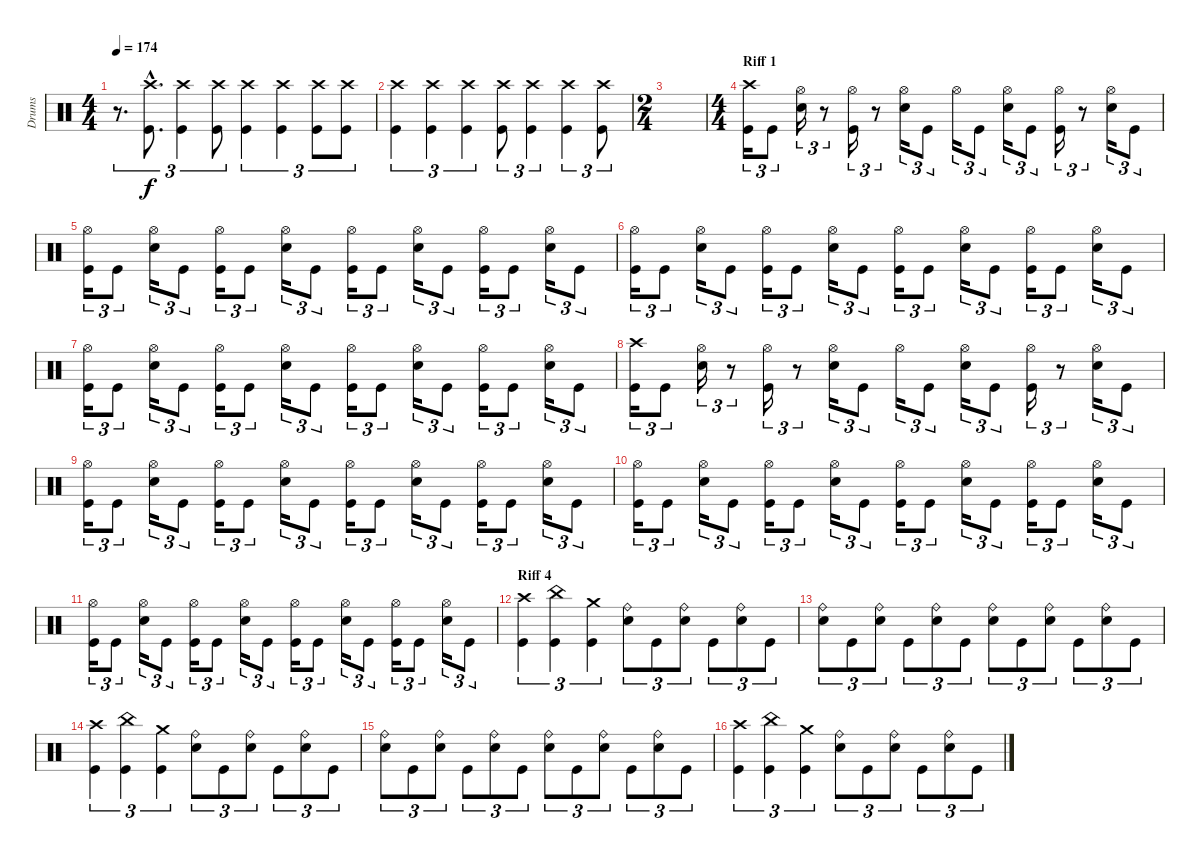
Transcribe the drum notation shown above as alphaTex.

\track ("Drums" "Drums") {instrument percussion}
\staff {score}
\articulation defaults
\ts (4 4)
\tempo 174
\clef neutral
\ks c
r.8{d tu (3 2) dy f} ("Crash high (hit)"{hac} "Kick (hit)"{hac}).8{d tu (3 2)} ("Crash high (hit)" "Kick (hit)").4{tu (3 2)} ("Crash high (hit)" "Kick (hit)").8{tu (3 2)} ("Crash high (hit)" "Kick (hit)").4{tu (3 2)} ("Crash high (hit)" "Kick (hit)").4{tu (3 2)} ("Crash high (hit)" "Kick (hit)").8{tu (3 2)} ("Crash high (hit)" "Kick (hit)").8{tu (3 2)} |
("Crash high (hit)" "Kick (hit)").4{tu (3 2)} ("Crash high (hit)" "Kick (hit)").4{tu (3 2)} ("Crash high (hit)" "Kick (hit)").4{tu (3 2)} ("Crash high (hit)" "Kick (hit)").8{tu (3 2)} ("Crash high (hit)" "Kick (hit)").4{tu (3 2)} ("Crash high (hit)" "Kick (hit)").4{tu (3 2)} ("Crash high (hit)" "Kick (hit)").8{tu (3 2)} |
\ts (2 4)
|
\ts (4 4)
\section ("" "Riff 1")
("Crash high (hit)" "Kick (hit)").16{tu (3 2)} "Kick (hit)".8{tu (3 2)} ("Hi-Hat (open)" "Electric Snare (hit)").16{tu (3 2)} r.8{tu (3 2)} ("Hi-Hat (open)" "Kick (hit)").16{tu (3 2)} r.8{tu (3 2)} ("Hi-Hat (open)" "Electric Snare (hit)").16{tu (3 2)} "Kick (hit)".8{tu (3 2)} "Hi-Hat (open)".16{tu (3 2)} "Kick (hit)".8{tu (3 2)} ("Hi-Hat (open)" "Electric Snare (hit)").16{tu (3 2)} "Kick (hit)".8{tu (3 2)} ("Hi-Hat (open)" "Kick (hit)").16{tu (3 2)} r.8{tu (3 2)} ("Hi-Hat (open)" "Electric Snare (hit)").16{tu (3 2)} "Kick (hit)".8{tu (3 2)} |
("Hi-Hat (open)" "Kick (hit)").16{tu (3 2)} "Kick (hit)".8{tu (3 2)} ("Hi-Hat (open)" "Electric Snare (hit)").16{tu (3 2)} "Kick (hit)".8{tu (3 2)} ("Hi-Hat (open)" "Kick (hit)").16{tu (3 2)} "Kick (hit)".8{tu (3 2)} ("Hi-Hat (open)" "Electric Snare (hit)").16{tu (3 2)} "Kick (hit)".8{tu (3 2)} ("Hi-Hat (open)" "Kick (hit)").16{tu (3 2)} "Kick (hit)".8{tu (3 2)} ("Hi-Hat (open)" "Electric Snare (hit)").16{tu (3 2)} "Kick (hit)".8{tu (3 2)} ("Hi-Hat (open)" "Kick (hit)").16{tu (3 2)} "Kick (hit)".8{tu (3 2)} ("Hi-Hat (open)" "Electric Snare (hit)").16{tu (3 2)} "Kick (hit)".8{tu (3 2)} |
("Hi-Hat (open)" "Kick (hit)").16{tu (3 2)} "Kick (hit)".8{tu (3 2)} ("Hi-Hat (open)" "Electric Snare (hit)").16{tu (3 2)} "Kick (hit)".8{tu (3 2)} ("Hi-Hat (open)" "Kick (hit)").16{tu (3 2)} "Kick (hit)".8{tu (3 2)} ("Hi-Hat (open)" "Electric Snare (hit)").16{tu (3 2)} "Kick (hit)".8{tu (3 2)} ("Hi-Hat (open)" "Kick (hit)").16{tu (3 2)} "Kick (hit)".8{tu (3 2)} ("Hi-Hat (open)" "Electric Snare (hit)").16{tu (3 2)} "Kick (hit)".8{tu (3 2)} ("Hi-Hat (open)" "Kick (hit)").16{tu (3 2)} "Kick (hit)".8{tu (3 2)} ("Hi-Hat (open)" "Electric Snare (hit)").16{tu (3 2)} "Kick (hit)".8{tu (3 2)} |
("Hi-Hat (open)" "Kick (hit)").16{tu (3 2)} "Kick (hit)".8{tu (3 2)} ("Hi-Hat (open)" "Electric Snare (hit)").16{tu (3 2)} "Kick (hit)".8{tu (3 2)} ("Hi-Hat (open)" "Kick (hit)").16{tu (3 2)} "Kick (hit)".8{tu (3 2)} ("Hi-Hat (open)" "Electric Snare (hit)").16{tu (3 2)} "Kick (hit)".8{tu (3 2)} ("Hi-Hat (open)" "Kick (hit)").16{tu (3 2)} "Kick (hit)".8{tu (3 2)} ("Hi-Hat (open)" "Electric Snare (hit)").16{tu (3 2)} "Kick (hit)".8{tu (3 2)} ("Hi-Hat (open)" "Kick (hit)").16{tu (3 2)} "Kick (hit)".8{tu (3 2)} ("Hi-Hat (open)" "Electric Snare (hit)").16{tu (3 2)} "Kick (hit)".8{tu (3 2)} |
("Crash high (hit)" "Kick (hit)").16{tu (3 2)} "Kick (hit)".8{tu (3 2)} ("Hi-Hat (open)" "Electric Snare (hit)").16{tu (3 2)} r.8{tu (3 2)} ("Hi-Hat (open)" "Kick (hit)").16{tu (3 2)} r.8{tu (3 2)} ("Hi-Hat (open)" "Electric Snare (hit)").16{tu (3 2)} "Kick (hit)".8{tu (3 2)} "Hi-Hat (open)".16{tu (3 2)} "Kick (hit)".8{tu (3 2)} ("Hi-Hat (open)" "Electric Snare (hit)").16{tu (3 2)} "Kick (hit)".8{tu (3 2)} ("Hi-Hat (open)" "Kick (hit)").16{tu (3 2)} r.8{tu (3 2)} ("Hi-Hat (open)" "Electric Snare (hit)").16{tu (3 2)} "Kick (hit)".8{tu (3 2)} |
("Hi-Hat (open)" "Kick (hit)").16{tu (3 2)} "Kick (hit)".8{tu (3 2)} ("Hi-Hat (open)" "Electric Snare (hit)").16{tu (3 2)} "Kick (hit)".8{tu (3 2)} ("Hi-Hat (open)" "Kick (hit)").16{tu (3 2)} "Kick (hit)".8{tu (3 2)} ("Hi-Hat (open)" "Electric Snare (hit)").16{tu (3 2)} "Kick (hit)".8{tu (3 2)} ("Hi-Hat (open)" "Kick (hit)").16{tu (3 2)} "Kick (hit)".8{tu (3 2)} ("Hi-Hat (open)" "Electric Snare (hit)").16{tu (3 2)} "Kick (hit)".8{tu (3 2)} ("Hi-Hat (open)" "Kick (hit)").16{tu (3 2)} "Kick (hit)".8{tu (3 2)} ("Hi-Hat (open)" "Electric Snare (hit)").16{tu (3 2)} "Kick (hit)".8{tu (3 2)} |
("Hi-Hat (open)" "Kick (hit)").16{tu (3 2)} "Kick (hit)".8{tu (3 2)} ("Hi-Hat (open)" "Electric Snare (hit)").16{tu (3 2)} "Kick (hit)".8{tu (3 2)} ("Hi-Hat (open)" "Kick (hit)").16{tu (3 2)} "Kick (hit)".8{tu (3 2)} ("Hi-Hat (open)" "Electric Snare (hit)").16{tu (3 2)} "Kick (hit)".8{tu (3 2)} ("Hi-Hat (open)" "Kick (hit)").16{tu (3 2)} "Kick (hit)".8{tu (3 2)} ("Hi-Hat (open)" "Electric Snare (hit)").16{tu (3 2)} "Kick (hit)".8{tu (3 2)} ("Hi-Hat (open)" "Kick (hit)").16{tu (3 2)} "Kick (hit)".8{tu (3 2)} ("Hi-Hat (open)" "Electric Snare (hit)").16{tu (3 2)} "Kick (hit)".8{tu (3 2)} |
("Hi-Hat (open)" "Kick (hit)").16{tu (3 2)} "Kick (hit)".8{tu (3 2)} ("Hi-Hat (open)" "Electric Snare (hit)").16{tu (3 2)} "Kick (hit)".8{tu (3 2)} ("Hi-Hat (open)" "Kick (hit)").16{tu (3 2)} "Kick (hit)".8{tu (3 2)} ("Hi-Hat (open)" "Electric Snare (hit)").16{tu (3 2)} "Kick (hit)".8{tu (3 2)} ("Hi-Hat (open)" "Kick (hit)").16{tu (3 2)} "Kick (hit)".8{tu (3 2)} ("Hi-Hat (open)" "Electric Snare (hit)").16{tu (3 2)} "Kick (hit)".8{tu (3 2)} ("Hi-Hat (open)" "Kick (hit)").16{tu (3 2)} "Kick (hit)".8{tu (3 2)} ("Hi-Hat (open)" "Electric Snare (hit)").16{tu (3 2)} "Kick (hit)".8{tu (3 2)} |
\section ("" "Riff 4")
("Crash high (hit)" "Kick (hit)").4{tu (3 2)} ("China (hit)" "Kick (hit)").4{tu (3 2)} ("Crash medium (hit)" "Kick (hit)").4{tu (3 2)} ("Ride (bell)" "Electric Snare (hit)").8{tu (3 2)} "Kick (hit)".8{tu (3 2)} ("Ride (bell)" "Electric Snare (hit)").8{tu (3 2)} "Kick (hit)".8{tu (3 2)} ("Ride (bell)" "Electric Snare (hit)").8{tu (3 2)} "Kick (hit)".8{tu (3 2)} |
("Ride (bell)" "Electric Snare (hit)").8{tu (3 2)} "Kick (hit)".8{tu (3 2)} ("Ride (bell)" "Electric Snare (hit)").8{tu (3 2)} "Kick (hit)".8{tu (3 2)} ("Ride (bell)" "Electric Snare (hit)").8{tu (3 2)} "Kick (hit)".8{tu (3 2)} ("Ride (bell)" "Electric Snare (hit)").8{tu (3 2)} "Kick (hit)".8{tu (3 2)} ("Ride (bell)" "Electric Snare (hit)").8{tu (3 2)} "Kick (hit)".8{tu (3 2)} ("Ride (bell)" "Electric Snare (hit)").8{tu (3 2)} "Kick (hit)".8{tu (3 2)} |
("Crash high (hit)" "Kick (hit)").4{tu (3 2)} ("China (hit)" "Kick (hit)").4{tu (3 2)} ("Crash medium (hit)" "Kick (hit)").4{tu (3 2)} ("Ride (bell)" "Electric Snare (hit)").8{tu (3 2)} "Kick (hit)".8{tu (3 2)} ("Ride (bell)" "Electric Snare (hit)").8{tu (3 2)} "Kick (hit)".8{tu (3 2)} ("Ride (bell)" "Electric Snare (hit)").8{tu (3 2)} "Kick (hit)".8{tu (3 2)} |
("Ride (bell)" "Electric Snare (hit)").8{tu (3 2)} "Kick (hit)".8{tu (3 2)} ("Ride (bell)" "Electric Snare (hit)").8{tu (3 2)} "Kick (hit)".8{tu (3 2)} ("Ride (bell)" "Electric Snare (hit)").8{tu (3 2)} "Kick (hit)".8{tu (3 2)} ("Ride (bell)" "Electric Snare (hit)").8{tu (3 2)} "Kick (hit)".8{tu (3 2)} ("Ride (bell)" "Electric Snare (hit)").8{tu (3 2)} "Kick (hit)".8{tu (3 2)} ("Ride (bell)" "Electric Snare (hit)").8{tu (3 2)} "Kick (hit)".8{tu (3 2)} |
("Crash high (hit)" "Kick (hit)").4{tu (3 2)} ("China (hit)" "Kick (hit)").4{tu (3 2)} ("Crash medium (hit)" "Kick (hit)").4{tu (3 2)} ("Ride (bell)" "Electric Snare (hit)").8{tu (3 2)} "Kick (hit)".8{tu (3 2)} ("Ride (bell)" "Electric Snare (hit)").8{tu (3 2)} "Kick (hit)".8{tu (3 2)} ("Ride (bell)" "Electric Snare (hit)").8{tu (3 2)} "Kick (hit)".8{tu (3 2)}
